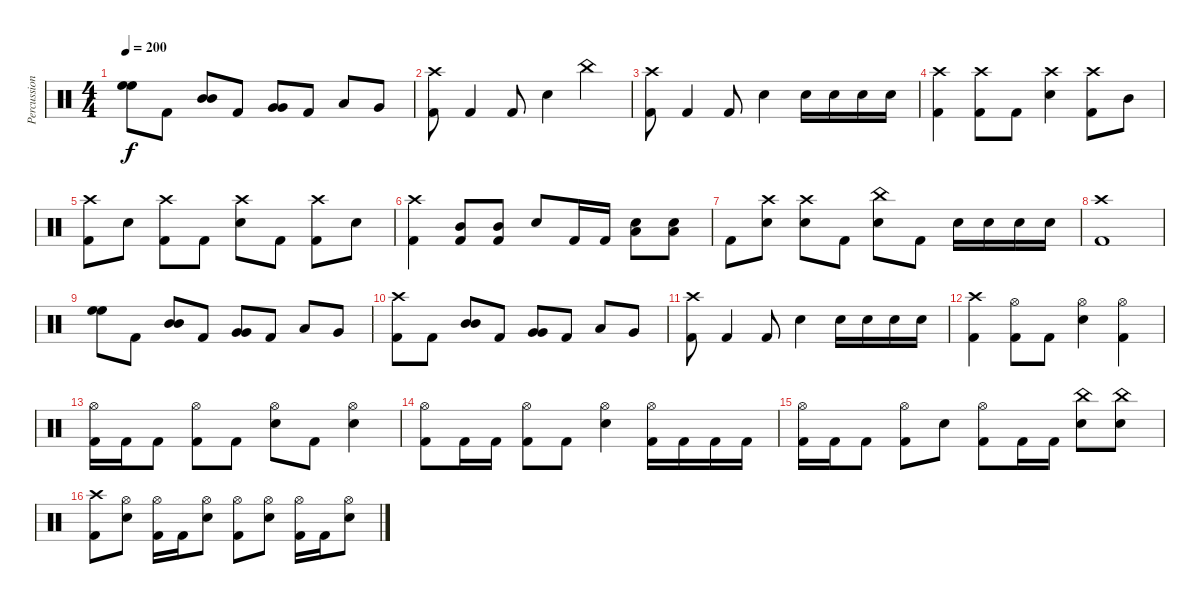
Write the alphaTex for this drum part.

\track ("Percussions" "Percussion") {instrument percussion}
\staff {score}
\articulation defaults
\ts (4 4)
\tempo 200
\clef neutral
\ks c
("High Floor Tom (hit)" "High Floor Tom (hit)").8{bd 120 dy f} "Kick (hit) 2".8 ("Mid Tom (hit)" "Mid Tom (hit)").8{bd 120} "Kick (hit) 2".8 ("Very Low Tom (hit)" "Very Low Tom (hit)").8{bd 120} "Kick (hit) 2".8 "Low Tom (hit)".8 "Very Low Tom (hit)".8 |
("Crash high (hit)" "Kick (hit) 2").8 "Kick (hit) 2".4 "Kick (hit) 2".8 "Snare (hit) 2".4 "China (hit)".4 |
("Crash high (hit)" "Kick (hit) 2").8 "Kick (hit) 2".4 "Kick (hit) 2".8 "Snare (hit) 2".4 "Snare (hit) 2".16 "Snare (hit) 2".16 "Snare (hit) 2".16 "Snare (hit) 2".16 |
("Crash high (hit)" "Kick (hit) 2").4 ("Crash high (hit)" "Kick (hit) 2").8 "Kick (hit) 2".8 ("Crash high (hit)" "Snare (hit) 2").4 ("Crash high (hit)" "Kick (hit) 2").8 "Mid Tom (hit)".8 |
("Crash high (hit)" "Kick (hit) 2").8 "Snare (hit) 2".8 ("Crash high (hit)" "Kick (hit) 2").8 "Kick (hit) 2".8 ("Crash high (hit)" "Snare (hit) 2").8 "Kick (hit) 2".8 ("Crash high (hit)" "Kick (hit) 2").8 "Snare (hit) 2".8 |
("Crash high (hit)" "Kick (hit) 2").4 ("Mid Tom (hit)" "Kick (hit) 2").8 ("Mid Tom (hit)" "Kick (hit) 2").8 "Snare (hit) 2".8 "Kick (hit) 2".16 "Kick (hit) 2".16 ("Low Floor Tom (hit)" "Snare (hit) 2").8 ("Low Floor Tom (hit)" "Snare (hit) 2").8 |
"Kick (hit) 2".8 ("Crash high (hit)" "Snare (hit) 2").8 ("Crash high (hit)" "Snare (hit) 2").8 "Kick (hit) 2".8 ("China (hit)" "Snare (hit) 2").8 "Kick (hit) 2".8 "Snare (hit) 2".16 "Snare (hit) 2".16 "Snare (hit) 2".16 "Snare (hit) 2".16 |
("Crash high (hit)" "Kick (hit) 2").1 |
("High Floor Tom (hit)" "High Floor Tom (hit)").8{bd 120} "Kick (hit) 2".8 ("Mid Tom (hit)" "Mid Tom (hit)").8{bd 120} "Kick (hit) 2".8 ("Very Low Tom (hit)" "Very Low Tom (hit)").8{bd 120} "Kick (hit) 2".8 "Low Tom (hit)".8 "Very Low Tom (hit)".8 |
("Crash high (hit)" "Kick (hit) 2").8 "Kick (hit) 2".8 ("Mid Tom (hit)" "Mid Tom (hit)").8{bd 120} "Kick (hit) 2".8 ("Very Low Tom (hit)" "Very Low Tom (hit)").8{bd 120} "Kick (hit) 2".8 "Low Tom (hit)".8 "Very Low Tom (hit)".8 |
("Crash high (hit)" "Kick (hit) 2").8 "Kick (hit) 2".4 "Kick (hit) 2".8 "Snare (hit) 2".4 "Snare (hit) 2".16 "Snare (hit) 2".16 "Snare (hit) 2".16 "Snare (hit) 2".16 |
("Crash high (hit)" "Kick (hit) 2").4 ("Hi-Hat (open)" "Kick (hit) 2").8 "Kick (hit) 2".8 ("Hi-Hat (open)" "Snare (hit) 2").4 ("Hi-Hat (open)" "Kick (hit) 2").4 |
("Hi-Hat (open)" "Kick (hit) 2").16 "Kick (hit) 2".16 "Kick (hit) 2".8 ("Hi-Hat (open)" "Kick (hit) 2").8 "Kick (hit) 2".8 ("Hi-Hat (open)" "Snare (hit) 2").8 "Kick (hit) 2".8 ("Hi-Hat (open)" "Snare (hit) 2").4 |
("Hi-Hat (open)" "Kick (hit) 2").8 "Kick (hit) 2".16 "Kick (hit) 2".16 ("Hi-Hat (open)" "Kick (hit) 2").8 "Kick (hit) 2".8 ("Hi-Hat (open)" "Snare (hit) 2").4 ("Hi-Hat (open)" "Kick (hit) 2").16 "Kick (hit) 2".16 "Kick (hit) 2".16 "Kick (hit) 2".16 |
("Hi-Hat (open)" "Kick (hit) 2").16 "Kick (hit) 2".16 "Kick (hit) 2".8 ("Hi-Hat (open)" "Kick (hit) 2").8 "Snare (hit) 2".8 ("Hi-Hat (open)" "Kick (hit) 2").8 "Kick (hit) 2".16 "Kick (hit) 2".16 ("China (hit)" "Snare (hit) 2").8 ("China (hit)" "Snare (hit) 2").8 |
("Crash high (hit)" "Kick (hit) 2").8 ("Hi-Hat (open)" "Snare (hit) 2").8 ("Hi-Hat (open)" "Kick (hit) 2").16 "Kick (hit) 2".16 ("Hi-Hat (open)" "Snare (hit) 2").8 ("Hi-Hat (open)" "Kick (hit) 2").8 ("Hi-Hat (open)" "Snare (hit) 2").8 ("Hi-Hat (open)" "Kick (hit) 2").16 "Kick (hit) 2".16 ("Hi-Hat (open)" "Snare (hit) 2").8
